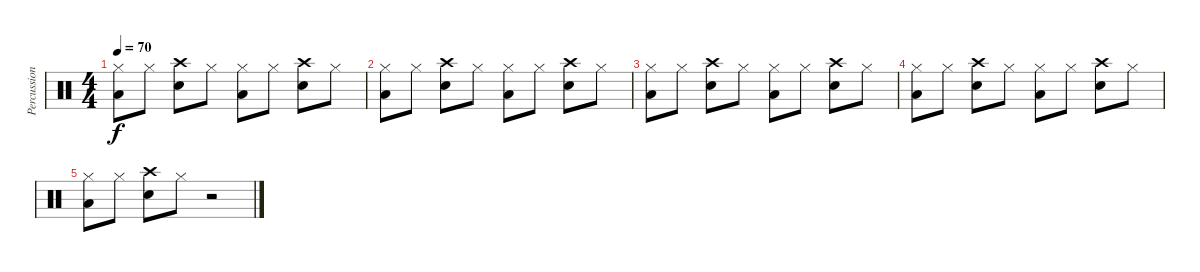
\track ("Percussions" "Percussion") {instrument percussion}
\staff {score}
\articulation defaults
\ts (4 4)
\tempo 70
\clef neutral
\ks c
("Hi-Hat (closed)" "Low Floor Tom (hit)").8{dy f} "Hi-Hat (closed)".8 ("Electric Snare (hit)" "Crash high (hit)").8 "Hi-Hat (closed)".8 ("Hi-Hat (closed)" "Low Floor Tom (hit)").8 "Hi-Hat (closed)".8 ("Electric Snare (hit)" "Crash high (hit)").8 "Hi-Hat (closed)".8 |
("Hi-Hat (closed)" "Low Floor Tom (hit)").8 "Hi-Hat (closed)".8 ("Electric Snare (hit)" "Crash high (hit)").8 "Hi-Hat (closed)".8 ("Hi-Hat (closed)" "Low Floor Tom (hit)").8 "Hi-Hat (closed)".8 ("Electric Snare (hit)" "Crash high (hit)").8 "Hi-Hat (closed)".8 |
("Hi-Hat (closed)" "Low Floor Tom (hit)").8 "Hi-Hat (closed)".8 ("Electric Snare (hit)" "Crash high (hit)").8 "Hi-Hat (closed)".8 ("Hi-Hat (closed)" "Low Floor Tom (hit)").8 "Hi-Hat (closed)".8 ("Electric Snare (hit)" "Crash high (hit)").8 "Hi-Hat (closed)".8 |
("Hi-Hat (closed)" "Low Floor Tom (hit)").8 "Hi-Hat (closed)".8 ("Electric Snare (hit)" "Crash high (hit)").8 "Hi-Hat (closed)".8 ("Hi-Hat (closed)" "Low Floor Tom (hit)").8 "Hi-Hat (closed)".8 ("Electric Snare (hit)" "Crash high (hit)").8 "Hi-Hat (closed)".8 |
("Hi-Hat (closed)" "Low Floor Tom (hit)").8 "Hi-Hat (closed)".8 ("Electric Snare (hit)" "Crash high (hit)").8 "Hi-Hat (closed)".8 r.2
